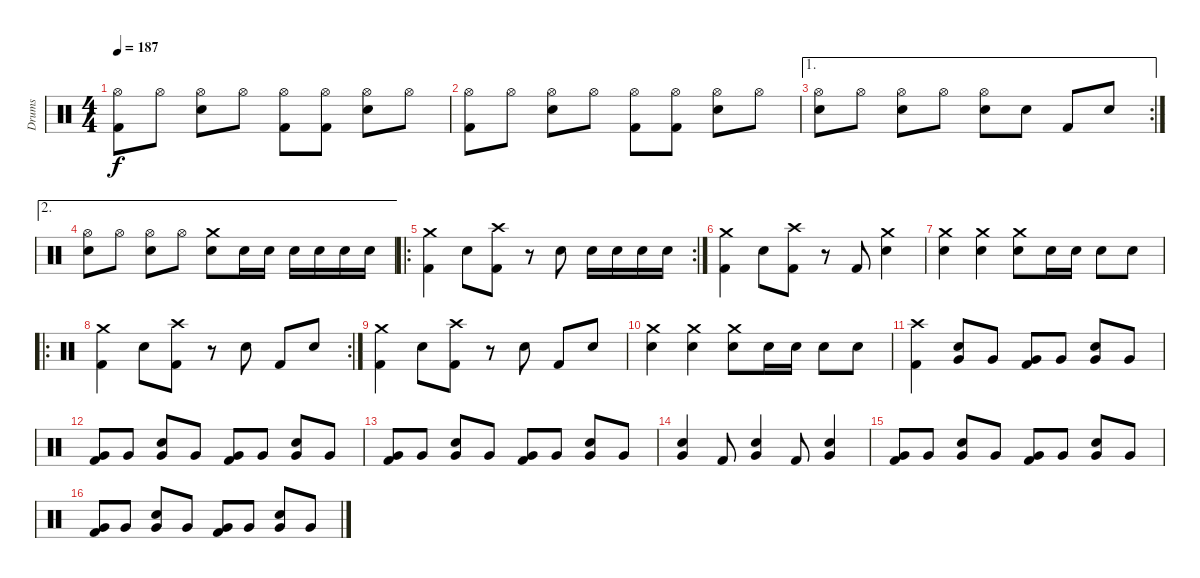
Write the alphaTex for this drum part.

\track ("Drums" "Drums") {instrument percussion}
\staff {score}
\articulation defaults
\ts (4 4)
\tempo 187
\clef neutral
\ks c
("Hi-Hat (open)" "Kick (hit) 2").8{dy f} "Hi-Hat (open)".8 ("Hi-Hat (open)" "Snare (hit) 2").8 "Hi-Hat (open)".8 ("Hi-Hat (open)" "Kick (hit) 2").8 ("Hi-Hat (open)" "Kick (hit) 2").8 ("Hi-Hat (open)" "Snare (hit) 2").8 "Hi-Hat (open)".8 |
("Hi-Hat (open)" "Kick (hit) 2").8 "Hi-Hat (open)".8 ("Hi-Hat (open)" "Snare (hit) 2").8 "Hi-Hat (open)".8 ("Hi-Hat (open)" "Kick (hit) 2").8 ("Hi-Hat (open)" "Kick (hit) 2").8 ("Hi-Hat (open)" "Snare (hit) 2").8 "Hi-Hat (open)".8 |
\ae 1
\rc 2
("Hi-Hat (open)" "Snare (hit) 2").8 "Hi-Hat (open)".8 ("Hi-Hat (open)" "Snare (hit) 2").8 "Hi-Hat (open)".8 ("Hi-Hat (open)" "Snare (hit) 2").8 "Snare (hit) 2".8 "Kick (hit) 2".8 "Snare (hit) 2".8 |
\ae 2
("Hi-Hat (open)" "Snare (hit) 2").8 "Hi-Hat (open)".8 ("Hi-Hat (open)" "Snare (hit) 2").8 "Hi-Hat (open)".8 ("Crash medium (hit)" "Snare (hit) 2").8 "Snare (hit) 2".16 "Snare (hit) 2".16 "Snare (hit) 2".16 "Snare (hit) 2".16 "Snare (hit) 2".16 "Snare (hit) 2".16 |
\ro
\rc 2
("Crash medium (hit)" "Kick (hit) 2").4 "Snare (hit) 2".8 ("Crash high (hit)" "Kick (hit) 2").8 r.8 "Snare (hit) 2".8 "Snare (hit) 2".16 "Snare (hit) 2".16 "Snare (hit) 2".16 "Snare (hit) 2".16 |
("Crash medium (hit)" "Kick (hit) 2").4 "Snare (hit) 2".8 ("Crash high (hit)" "Kick (hit) 2").8 r.8 "Kick (hit) 2".8 ("Crash medium (hit)" "Snare (hit) 2").4 |
("Crash medium (hit)" "Snare (hit) 2").4 ("Crash medium (hit)" "Snare (hit) 2").4 ("Crash medium (hit)" "Snare (hit) 2").8 "Snare (hit) 2".16 "Snare (hit) 2".16 "Snare (hit) 2".8 "Snare (hit) 2".8 |
\ro
\rc 2
("Crash medium (hit)" "Kick (hit) 2").4 "Snare (hit) 2".8 ("Crash high (hit)" "Kick (hit) 2").8 r.8 "Snare (hit) 2".8 "Kick (hit) 2".8 "Snare (hit) 2".8 |
("Crash medium (hit)" "Kick (hit) 2").4 "Snare (hit) 2".8 ("Crash high (hit)" "Kick (hit) 2").8 r.8 "Snare (hit) 2".8 "Kick (hit) 2".8 "Snare (hit) 2".8 |
("Crash medium (hit)" "Snare (hit) 2").4 ("Crash medium (hit)" "Snare (hit) 2").4 ("Crash medium (hit)" "Snare (hit) 2").8 "Snare (hit) 2".16 "Snare (hit) 2".16 "Snare (hit) 2".8 "Snare (hit) 2".8 |
("Crash high (hit)" "Kick (hit) 2").4 ("Snare (hit) 2" "Very Low Tom (hit)").8 "Very Low Tom (hit)".8 ("Very Low Tom (hit)" "Kick (hit) 2").8 "Very Low Tom (hit)".8 ("Snare (hit) 2" "Very Low Tom (hit)").8 "Very Low Tom (hit)".8 |
("Very Low Tom (hit)" "Kick (hit) 2").8 "Very Low Tom (hit)".8 ("Snare (hit) 2" "Very Low Tom (hit)").8 "Very Low Tom (hit)".8 ("Very Low Tom (hit)" "Kick (hit) 2").8 "Very Low Tom (hit)".8 ("Snare (hit) 2" "Very Low Tom (hit)").8 "Very Low Tom (hit)".8 |
("Very Low Tom (hit)" "Kick (hit) 2").8 "Very Low Tom (hit)".8 ("Snare (hit) 2" "Very Low Tom (hit)").8 "Very Low Tom (hit)".8 ("Very Low Tom (hit)" "Kick (hit) 2").8 "Very Low Tom (hit)".8 ("Snare (hit) 2" "Very Low Tom (hit)").8 "Very Low Tom (hit)".8 |
("Snare (hit) 2" "Very Low Tom (hit)").4 "Kick (hit) 2".8 ("Snare (hit) 2" "Very Low Tom (hit)").4 "Kick (hit) 2".8 ("Snare (hit) 2" "Very Low Tom (hit)").4 |
("Very Low Tom (hit)" "Kick (hit) 2").8 "Very Low Tom (hit)".8 ("Snare (hit) 2" "Very Low Tom (hit)").8 "Very Low Tom (hit)".8 ("Very Low Tom (hit)" "Kick (hit) 2").8 "Very Low Tom (hit)".8 ("Snare (hit) 2" "Very Low Tom (hit)").8 "Very Low Tom (hit)".8 |
("Very Low Tom (hit)" "Kick (hit) 2").8 "Very Low Tom (hit)".8 ("Snare (hit) 2" "Very Low Tom (hit)").8 "Very Low Tom (hit)".8 ("Very Low Tom (hit)" "Kick (hit) 2").8 "Very Low Tom (hit)".8 ("Snare (hit) 2" "Very Low Tom (hit)").8 "Very Low Tom (hit)".8
